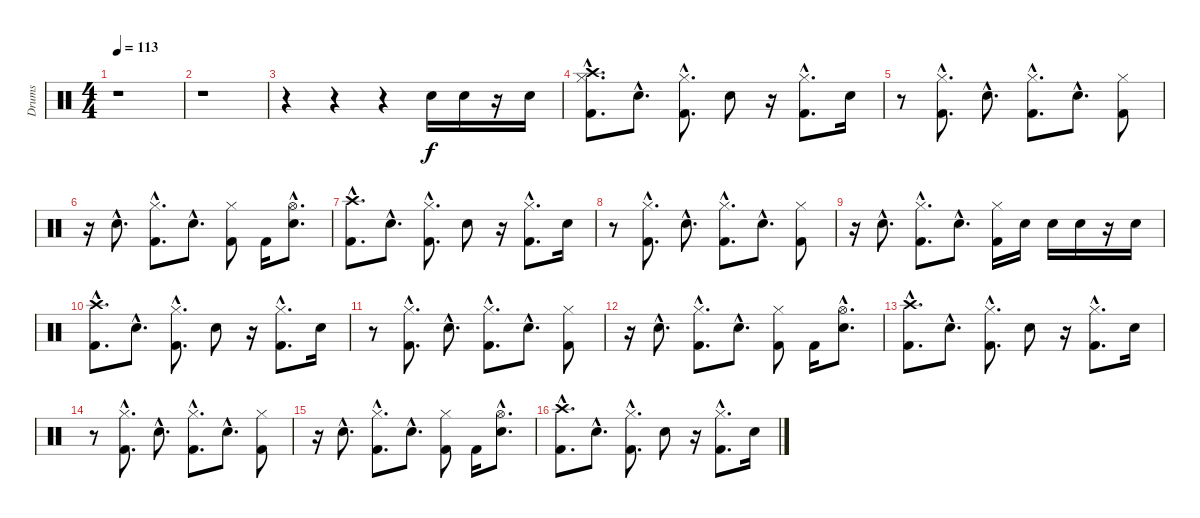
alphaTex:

\track ("Drums" "Drums") {instrument percussion}
\staff {score}
\articulation defaults
\ts (4 4)
\tempo 113
\clef neutral
\ks c
r.1{dy f} |
r.1 |
r.4 r.4 r.4 "Electric Snare (hit)".16 "Electric Snare (hit)".16 r.16 "Electric Snare (hit)".16 |
("Crash high (hit)"{hac} "Hi-Hat (closed)"{hac} "Kick (hit) 2"{hac}).8{d} "Electric Snare (hit)"{hac}.8{d} ("Hi-Hat (closed)"{hac} "Kick (hit) 2"{hac}).8{d} "Electric Snare (hit)".8 r.16 ("Hi-Hat (closed)"{hac} "Kick (hit) 2"{hac}).8{d} "Electric Snare (hit)".16 |
r.8 ("Hi-Hat (closed)"{hac} "Kick (hit) 2"{hac}).8{d} "Electric Snare (hit)"{hac}.8{d} ("Hi-Hat (closed)"{hac} "Kick (hit) 2"{hac}).8{d} "Electric Snare (hit)"{hac}.8{d} ("Hi-Hat (closed)" "Kick (hit) 2").8 |
r.16 "Electric Snare (hit)"{hac}.8{d} ("Hi-Hat (closed)"{hac} "Kick (hit) 2"{hac}).8{d} "Electric Snare (hit)"{hac}.8{d} ("Hi-Hat (closed)" "Kick (hit) 2").8 "Kick (hit) 2".16 ("Hi-Hat (open)"{hac} "Electric Snare (hit)"{hac}).8{d} |
("Crash high (hit)"{hac} "Kick (hit) 2"{hac}).8{d} "Electric Snare (hit)"{hac}.8{d} ("Hi-Hat (closed)"{hac} "Kick (hit) 2"{hac}).8{d} "Electric Snare (hit)".8 r.16 ("Hi-Hat (closed)"{hac} "Kick (hit) 2"{hac}).8{d} "Electric Snare (hit)".16 |
r.8 ("Hi-Hat (closed)"{hac} "Kick (hit) 2"{hac}).8{d} "Electric Snare (hit)"{hac}.8{d} ("Hi-Hat (closed)"{hac} "Kick (hit) 2"{hac}).8{d} "Electric Snare (hit)"{hac}.8{d} ("Hi-Hat (closed)" "Kick (hit) 2").8 |
r.16 "Electric Snare (hit)"{hac}.8{d} ("Hi-Hat (closed)"{hac} "Kick (hit) 2"{hac}).8{d} "Electric Snare (hit)"{hac}.8{d} ("Hi-Hat (closed)" "Kick (hit) 2").16 "Electric Snare (hit)".16 "Electric Snare (hit)".16 "Electric Snare (hit)".16 r.16 "Electric Snare (hit)".16 |
("Crash high (hit)"{hac} "Kick (hit) 2"{hac}).8{d} "Electric Snare (hit)"{hac}.8{d} ("Hi-Hat (closed)"{hac} "Kick (hit) 2"{hac}).8{d} "Electric Snare (hit)".8 r.16 ("Hi-Hat (closed)"{hac} "Kick (hit) 2"{hac}).8{d} "Electric Snare (hit)".16 |
r.8 ("Hi-Hat (closed)"{hac} "Kick (hit) 2"{hac}).8{d} "Electric Snare (hit)"{hac}.8{d} ("Hi-Hat (closed)"{hac} "Kick (hit) 2"{hac}).8{d} "Electric Snare (hit)"{hac}.8{d} ("Hi-Hat (closed)" "Kick (hit) 2").8 |
r.16 "Electric Snare (hit)"{hac}.8{d} ("Hi-Hat (closed)"{hac} "Kick (hit) 2"{hac}).8{d} "Electric Snare (hit)"{hac}.8{d} ("Hi-Hat (closed)" "Kick (hit) 2").8 "Kick (hit) 2".16 ("Hi-Hat (open)"{hac} "Electric Snare (hit)"{hac}).8{d} |
("Crash high (hit)"{hac} "Kick (hit) 2"{hac}).8{d} "Electric Snare (hit)"{hac}.8{d} ("Hi-Hat (closed)"{hac} "Kick (hit) 2"{hac}).8{d} "Electric Snare (hit)".8 r.16 ("Hi-Hat (closed)"{hac} "Kick (hit) 2"{hac}).8{d} "Electric Snare (hit)".16 |
r.8 ("Hi-Hat (closed)"{hac} "Kick (hit) 2"{hac}).8{d} "Electric Snare (hit)"{hac}.8{d} ("Hi-Hat (closed)"{hac} "Kick (hit) 2"{hac}).8{d} "Electric Snare (hit)"{hac}.8{d} ("Hi-Hat (closed)" "Kick (hit) 2").8 |
r.16 "Electric Snare (hit)"{hac}.8{d} ("Hi-Hat (closed)"{hac} "Kick (hit) 2"{hac}).8{d} "Electric Snare (hit)"{hac}.8{d} ("Hi-Hat (closed)" "Kick (hit) 2").8 "Kick (hit) 2".16 ("Hi-Hat (open)"{hac} "Electric Snare (hit)"{hac}).8{d} |
("Crash high (hit)"{hac} "Kick (hit) 2"{hac}).8{d} "Electric Snare (hit)"{hac}.8{d} ("Hi-Hat (closed)"{hac} "Kick (hit) 2"{hac}).8{d} "Electric Snare (hit)".8 r.16 ("Hi-Hat (closed)"{hac} "Kick (hit) 2"{hac}).8{d} "Electric Snare (hit)".16
